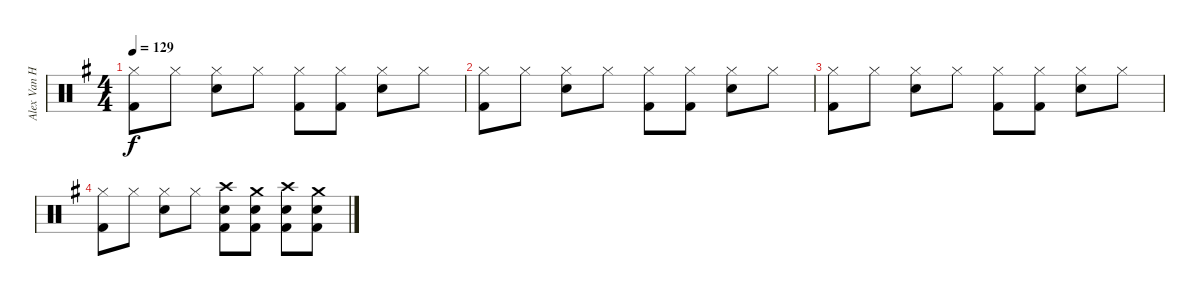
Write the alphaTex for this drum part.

\track ("Alex Van Halen" "Alex Van H") {instrument percussion}
\staff {score}
\articulation defaults
\ts (4 4)
\tempo 129
\clef neutral
\ks eminor
("Hi-Hat (closed)" "Kick (hit) 2").8{dy f} "Hi-Hat (closed)".8 ("Hi-Hat (closed)" "Snare (hit) 2").8 "Hi-Hat (closed)".8 ("Hi-Hat (closed)" "Kick (hit) 2").8 ("Hi-Hat (closed)" "Kick (hit) 2").8 ("Hi-Hat (closed)" "Snare (hit) 2").8 "Hi-Hat (closed)".8 |
("Hi-Hat (closed)" "Kick (hit) 2").8 "Hi-Hat (closed)".8 ("Hi-Hat (closed)" "Snare (hit) 2").8 "Hi-Hat (closed)".8 ("Hi-Hat (closed)" "Kick (hit) 2").8 ("Hi-Hat (closed)" "Kick (hit) 2").8 ("Hi-Hat (closed)" "Snare (hit) 2").8 "Hi-Hat (closed)".8 |
("Hi-Hat (closed)" "Kick (hit) 2").8 "Hi-Hat (closed)".8 ("Hi-Hat (closed)" "Snare (hit) 2").8 "Hi-Hat (closed)".8 ("Hi-Hat (closed)" "Kick (hit) 2").8 ("Hi-Hat (closed)" "Kick (hit) 2").8 ("Hi-Hat (closed)" "Snare (hit) 2").8 "Hi-Hat (closed)".8 |
("Hi-Hat (closed)" "Kick (hit) 2").8 "Hi-Hat (closed)".8 ("Hi-Hat (closed)" "Snare (hit) 2").8 "Hi-Hat (closed)".8 ("Crash high (hit)" "Snare (hit) 2" "Kick (hit) 2").8 ("Crash medium (hit)" "Snare (hit) 2" "Kick (hit) 2").8 ("Crash high (hit)" "Snare (hit) 2" "Kick (hit) 2").8 ("Crash medium (hit)" "Snare (hit) 2" "Kick (hit) 2").8
